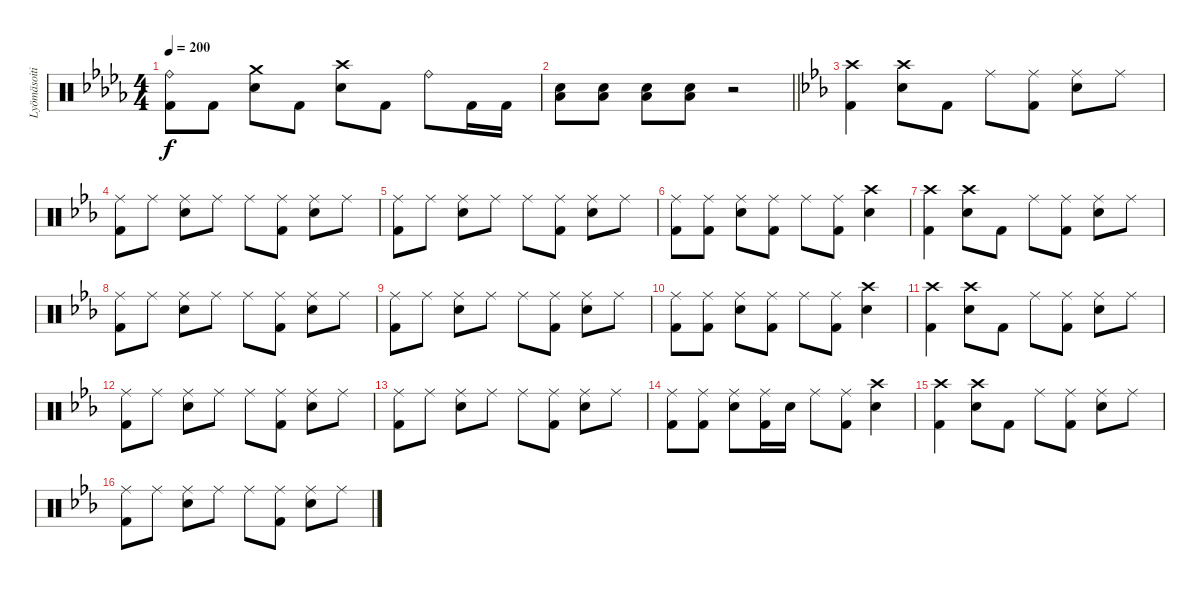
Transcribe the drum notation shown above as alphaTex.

\track ("Lyömäsoitin" "Lyömäsoiti") {instrument percussion}
\staff {score}
\articulation defaults
\ts (4 4)
\tempo 200
\clef neutral
\ks db
("Ride (bell)" "Kick (hit) 2").8{dy f} "Kick (hit) 2".8 ("Crash medium (hit)" "Snare (hit) 2").8 "Kick (hit) 2".8 ("Crash high (hit)" "Snare (hit) 2").8 "Kick (hit) 2".8 "Ride (bell)".8 "Kick (hit) 2".16 "Kick (hit) 2".16 |
\barLineRight lightlight
("Low Tom (hit)" "Snare (hit) 2").8 ("Low Tom (hit)" "Snare (hit) 2").8 ("Low Tom (hit)" "Snare (hit) 2").8 ("Low Tom (hit)" "Snare (hit) 2").8 r.2 |
\ks eb
("Crash high (hit)" "Kick (hit) 2").4 ("Crash high (hit)" "Snare (hit) 2").8 "Kick (hit) 2".8 "Ride (middle)".8 ("Ride (middle)" "Kick (hit) 2").8 ("Ride (middle)" "Snare (hit) 2").8 "Ride (middle)".8 |
("Ride (middle)" "Kick (hit) 2").8 "Ride (middle)".8 ("Ride (middle)" "Snare (hit) 2").8 "Ride (middle)".8 "Ride (middle)".8 ("Ride (middle)" "Kick (hit) 2").8 ("Ride (middle)" "Snare (hit) 2").8 "Ride (middle)".8 |
("Ride (middle)" "Kick (hit) 2").8 "Ride (middle)".8 ("Ride (middle)" "Snare (hit) 2").8 "Ride (middle)".8 "Ride (middle)".8 ("Ride (middle)" "Kick (hit) 2").8 ("Ride (middle)" "Snare (hit) 2").8 "Ride (middle)".8 |
("Ride (middle)" "Kick (hit) 2").8 ("Ride (middle)" "Kick (hit) 2").8 ("Ride (middle)" "Snare (hit) 2").8 ("Ride (middle)" "Kick (hit) 2").8 "Ride (middle)".8 ("Ride (middle)" "Kick (hit) 2").8 ("Crash high (hit)" "Snare (hit) 2").4 |
("Crash high (hit)" "Kick (hit) 2").4 ("Crash high (hit)" "Snare (hit) 2").8 "Kick (hit) 2".8 "Ride (middle)".8 ("Ride (middle)" "Kick (hit) 2").8 ("Ride (middle)" "Snare (hit) 2").8 "Ride (middle)".8 |
("Ride (middle)" "Kick (hit) 2").8 "Ride (middle)".8 ("Ride (middle)" "Snare (hit) 2").8 "Ride (middle)".8 "Ride (middle)".8 ("Ride (middle)" "Kick (hit) 2").8 ("Ride (middle)" "Snare (hit) 2").8 "Ride (middle)".8 |
("Ride (middle)" "Kick (hit) 2").8 "Ride (middle)".8 ("Ride (middle)" "Snare (hit) 2").8 "Ride (middle)".8 "Ride (middle)".8 ("Ride (middle)" "Kick (hit) 2").8 ("Ride (middle)" "Snare (hit) 2").8 "Ride (middle)".8 |
("Ride (middle)" "Kick (hit) 2").8 ("Ride (middle)" "Kick (hit) 2").8 ("Ride (middle)" "Snare (hit) 2").8 ("Ride (middle)" "Kick (hit) 2").8 "Ride (middle)".8 ("Ride (middle)" "Kick (hit) 2").8 ("Crash high (hit)" "Snare (hit) 2").4 |
("Crash high (hit)" "Kick (hit) 2").4 ("Crash high (hit)" "Snare (hit) 2").8 "Kick (hit) 2".8 "Ride (middle)".8 ("Ride (middle)" "Kick (hit) 2").8 ("Ride (middle)" "Snare (hit) 2").8 "Ride (middle)".8 |
("Ride (middle)" "Kick (hit) 2").8 "Ride (middle)".8 ("Ride (middle)" "Snare (hit) 2").8 "Ride (middle)".8 "Ride (middle)".8 ("Ride (middle)" "Kick (hit) 2").8 ("Ride (middle)" "Snare (hit) 2").8 "Ride (middle)".8 |
("Ride (middle)" "Kick (hit) 2").8 "Ride (middle)".8 ("Ride (middle)" "Snare (hit) 2").8 "Ride (middle)".8 "Ride (middle)".8 ("Ride (middle)" "Kick (hit) 2").8 ("Ride (middle)" "Snare (hit) 2").8 "Ride (middle)".8 |
("Ride (middle)" "Kick (hit) 2").8 ("Ride (middle)" "Kick (hit) 2").8 ("Ride (middle)" "Snare (hit) 2").8 ("Ride (middle)" "Kick (hit) 2").16 "Snare (hit) 2".16 "Ride (middle)".8 ("Ride (middle)" "Kick (hit) 2").8 ("Crash high (hit)" "Snare (hit) 2").4 |
("Crash high (hit)" "Kick (hit) 2").4 ("Crash high (hit)" "Snare (hit) 2").8 "Kick (hit) 2".8 "Ride (middle)".8 ("Ride (middle)" "Kick (hit) 2").8 ("Ride (middle)" "Snare (hit) 2").8 "Ride (middle)".8 |
("Ride (middle)" "Kick (hit) 2").8 "Ride (middle)".8 ("Ride (middle)" "Snare (hit) 2").8 "Ride (middle)".8 "Ride (middle)".8 ("Ride (middle)" "Kick (hit) 2").8 ("Ride (middle)" "Snare (hit) 2").8 "Ride (middle)".8
